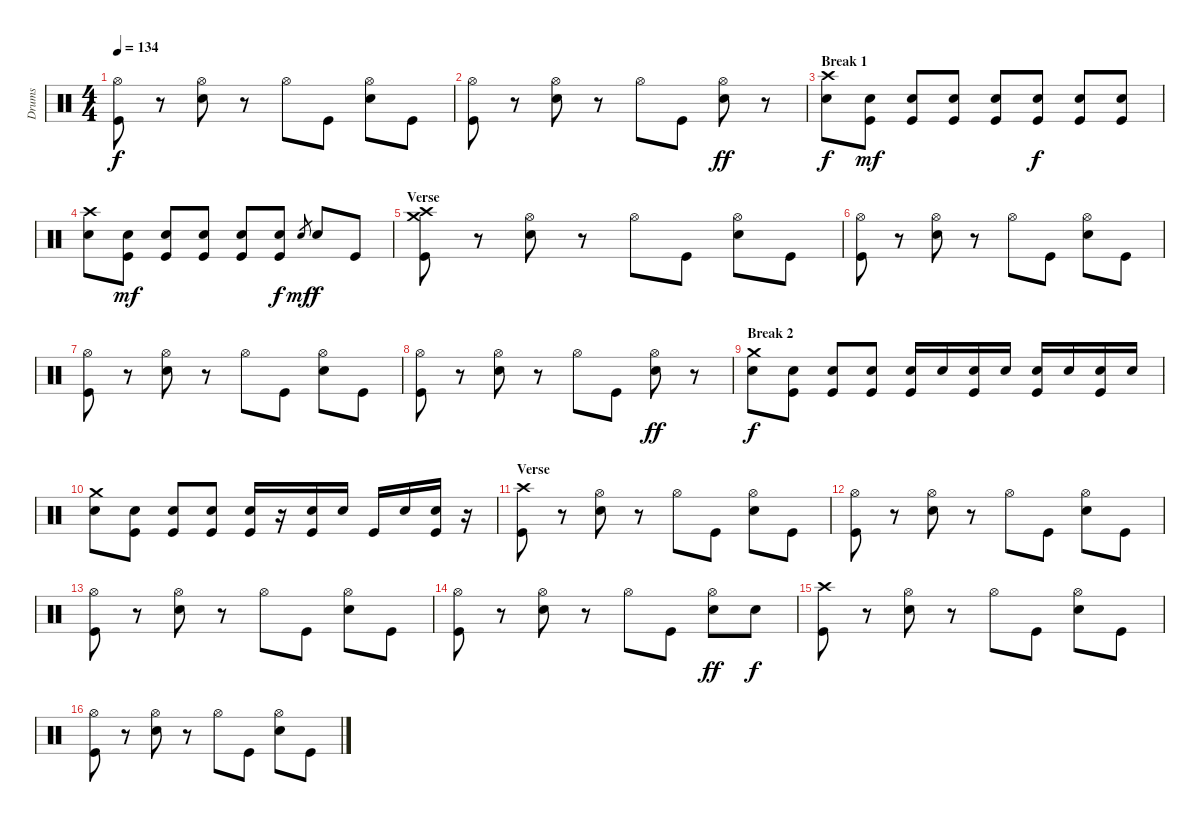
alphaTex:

\track ("Drums" "Drums") {instrument percussion}
\staff {score}
\articulation defaults
\ts (4 4)
\tempo 134
\clef neutral
\ks c
("Hi-Hat (open)" "Kick (hit)").8{dy f} r.8 ("Hi-Hat (open)" "Electric Snare (hit)").8 r.8 "Hi-Hat (open)".8 "Kick (hit)".8 ("Hi-Hat (open)" "Electric Snare (hit)").8 "Kick (hit)".8 |
("Hi-Hat (open)" "Kick (hit)").8 r.8 ("Hi-Hat (open)" "Electric Snare (hit)").8 r.8 "Hi-Hat (open)".8 "Kick (hit)".8 ("Hi-Hat (open)" "Electric Snare (hit)").8{dy ff} r.8 |
\section ("" "Break 1")
("Crash high (hit)" "Electric Snare (hit)").8{dy f} ("Electric Snare (hit)" "Kick (hit)").8{dy mf} ("Electric Snare (hit)" "Kick (hit)").8 ("Electric Snare (hit)" "Kick (hit)").8 ("Electric Snare (hit)" "Kick (hit)").8 ("Electric Snare (hit)" "Kick (hit)").8{dy f} ("Electric Snare (hit)" "Kick (hit)").8 ("Electric Snare (hit)" "Kick (hit)").8 |
("Crash high (hit)" "Electric Snare (hit)").8 ("Electric Snare (hit)" "Kick (hit)").8{dy mf} ("Electric Snare (hit)" "Kick (hit)").8 ("Electric Snare (hit)" "Kick (hit)").8 ("Electric Snare (hit)" "Kick (hit)").8 ("Electric Snare (hit)" "Kick (hit)").8{dy f} "Electric Snare (hit)".8{gr dy mf} "Electric Snare (hit)".8{dy f} "Kick (hit)".8 |
\section ("" "Verse")
("Crash high (hit)" "Crash medium (hit)" "Kick (hit)").8 r.8 ("Hi-Hat (open)" "Electric Snare (hit)").8 r.8 "Hi-Hat (open)".8 "Kick (hit)".8 ("Hi-Hat (open)" "Electric Snare (hit)").8 "Kick (hit)".8 |
("Hi-Hat (open)" "Kick (hit)").8 r.8 ("Hi-Hat (open)" "Electric Snare (hit)").8 r.8 "Hi-Hat (open)".8 "Kick (hit)".8 ("Hi-Hat (open)" "Electric Snare (hit)").8 "Kick (hit)".8 |
("Hi-Hat (open)" "Kick (hit)").8 r.8 ("Hi-Hat (open)" "Electric Snare (hit)").8 r.8 "Hi-Hat (open)".8 "Kick (hit)".8 ("Hi-Hat (open)" "Electric Snare (hit)").8 "Kick (hit)".8 |
("Hi-Hat (open)" "Kick (hit)").8 r.8 ("Hi-Hat (open)" "Electric Snare (hit)").8 r.8 "Hi-Hat (open)".8 "Kick (hit)".8 ("Hi-Hat (open)" "Electric Snare (hit)").8{dy ff} r.8 |
\section ("" "Break 2")
("Crash medium (hit)" "Electric Snare (hit)").8{dy f} ("Electric Snare (hit)" "Kick (hit)").8 ("Electric Snare (hit)" "Kick (hit)").8 ("Electric Snare (hit)" "Kick (hit)").8 ("Electric Snare (hit)" "Kick (hit)").16 "Electric Snare (hit)".16 ("Electric Snare (hit)" "Kick (hit)").16 "Electric Snare (hit)".16 ("Electric Snare (hit)" "Kick (hit)").16 "Electric Snare (hit)".16 ("Electric Snare (hit)" "Kick (hit)").16 "Electric Snare (hit)".16 |
("Crash medium (hit)" "Electric Snare (hit)").8 ("Electric Snare (hit)" "Kick (hit)").8 ("Electric Snare (hit)" "Kick (hit)").8 ("Electric Snare (hit)" "Kick (hit)").8 ("Electric Snare (hit)" "Kick (hit)").16 r.16 ("Electric Snare (hit)" "Kick (hit)").16 "Electric Snare (hit)".16 "Kick (hit)".16 "Electric Snare (hit)".16 ("Electric Snare (hit)" "Kick (hit)").16 r.16 |
\section ("" "Verse")
("Crash high (hit)" "Kick (hit)").8 r.8 ("Hi-Hat (open)" "Electric Snare (hit)").8 r.8 "Hi-Hat (open)".8 "Kick (hit)".8 ("Hi-Hat (open)" "Electric Snare (hit)").8 "Kick (hit)".8 |
("Hi-Hat (open)" "Kick (hit)").8 r.8 ("Hi-Hat (open)" "Electric Snare (hit)").8 r.8 "Hi-Hat (open)".8 "Kick (hit)".8 ("Hi-Hat (open)" "Electric Snare (hit)").8 "Kick (hit)".8 |
("Hi-Hat (open)" "Kick (hit)").8 r.8 ("Hi-Hat (open)" "Electric Snare (hit)").8 r.8 "Hi-Hat (open)".8 "Kick (hit)".8 ("Hi-Hat (open)" "Electric Snare (hit)").8 "Kick (hit)".8 |
("Hi-Hat (open)" "Kick (hit)").8 r.8 ("Hi-Hat (open)" "Electric Snare (hit)").8 r.8 "Hi-Hat (open)".8 "Kick (hit)".8 ("Hi-Hat (open)" "Electric Snare (hit)").8{dy ff} "Electric Snare (hit)".8{dy f} |
("Crash high (hit)" "Kick (hit)").8 r.8 ("Hi-Hat (open)" "Electric Snare (hit)").8 r.8 "Hi-Hat (open)".8 "Kick (hit)".8 ("Hi-Hat (open)" "Electric Snare (hit)").8 "Kick (hit)".8 |
("Hi-Hat (open)" "Kick (hit)").8 r.8 ("Hi-Hat (open)" "Electric Snare (hit)").8 r.8 "Hi-Hat (open)".8 "Kick (hit)".8 ("Hi-Hat (open)" "Electric Snare (hit)").8 "Kick (hit)".8
